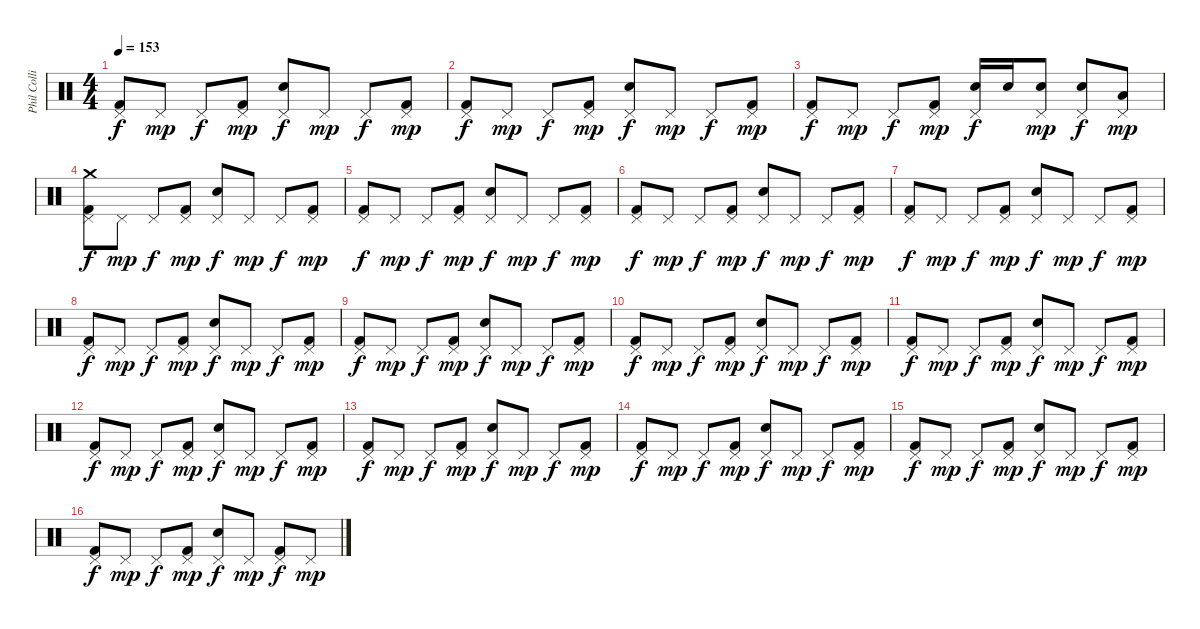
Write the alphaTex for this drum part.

\track ("Phil Collins (drums)" "Phil Colli") {instrument percussion}
\staff {score}
\articulation defaults
\ts (4 4)
\tempo 153
\clef neutral
\ks c
("Pedal Hi-Hat (hit)" "Kick (hit) 2").8{dy f} "Pedal Hi-Hat (hit)".8{dy mp} "Pedal Hi-Hat (hit)".8{dy f} ("Pedal Hi-Hat (hit)" "Kick (hit) 2").8{dy mp} ("Pedal Hi-Hat (hit)" "Electric Snare (hit)").8{dy f} "Pedal Hi-Hat (hit)".8{dy mp} "Pedal Hi-Hat (hit)".8{dy f} ("Pedal Hi-Hat (hit)" "Kick (hit) 2").8{dy mp} |
("Pedal Hi-Hat (hit)" "Kick (hit) 2").8{dy f} "Pedal Hi-Hat (hit)".8{dy mp} "Pedal Hi-Hat (hit)".8{dy f} ("Pedal Hi-Hat (hit)" "Kick (hit) 2").8{dy mp} ("Pedal Hi-Hat (hit)" "Electric Snare (hit)").8{dy f} "Pedal Hi-Hat (hit)".8{dy mp} "Pedal Hi-Hat (hit)".8{dy f} ("Pedal Hi-Hat (hit)" "Kick (hit) 2").8{dy mp} |
("Pedal Hi-Hat (hit)" "Kick (hit) 2").8{dy f} "Pedal Hi-Hat (hit)".8{dy mp} "Pedal Hi-Hat (hit)".8{dy f} ("Pedal Hi-Hat (hit)" "Kick (hit) 2").8{dy mp} ("Pedal Hi-Hat (hit)" "Electric Snare (hit)").16{dy f} "Electric Snare (hit)".16 ("Pedal Hi-Hat (hit)" "Electric Snare (hit)").8{dy mp} ("Pedal Hi-Hat (hit)" "Electric Snare (hit)").8{dy f} ("Pedal Hi-Hat (hit)" "Low Tom (hit)").8{dy mp} |
("Crash medium (hit)" "Pedal Hi-Hat (hit)" "Kick (hit) 2").8{dy f} "Pedal Hi-Hat (hit)".8{dy mp} "Pedal Hi-Hat (hit)".8{dy f} ("Pedal Hi-Hat (hit)" "Kick (hit) 2").8{dy mp} ("Pedal Hi-Hat (hit)" "Electric Snare (hit)").8{dy f} "Pedal Hi-Hat (hit)".8{dy mp} "Pedal Hi-Hat (hit)".8{dy f} ("Pedal Hi-Hat (hit)" "Kick (hit) 2").8{dy mp} |
("Pedal Hi-Hat (hit)" "Kick (hit) 2").8{dy f} "Pedal Hi-Hat (hit)".8{dy mp} "Pedal Hi-Hat (hit)".8{dy f} ("Pedal Hi-Hat (hit)" "Kick (hit) 2").8{dy mp} ("Pedal Hi-Hat (hit)" "Electric Snare (hit)").8{dy f} "Pedal Hi-Hat (hit)".8{dy mp} "Pedal Hi-Hat (hit)".8{dy f} ("Pedal Hi-Hat (hit)" "Kick (hit) 2").8{dy mp} |
("Pedal Hi-Hat (hit)" "Kick (hit) 2").8{dy f} "Pedal Hi-Hat (hit)".8{dy mp} "Pedal Hi-Hat (hit)".8{dy f} ("Pedal Hi-Hat (hit)" "Kick (hit) 2").8{dy mp} ("Pedal Hi-Hat (hit)" "Electric Snare (hit)").8{dy f} "Pedal Hi-Hat (hit)".8{dy mp} "Pedal Hi-Hat (hit)".8{dy f} ("Pedal Hi-Hat (hit)" "Kick (hit) 2").8{dy mp} |
("Pedal Hi-Hat (hit)" "Kick (hit) 2").8{dy f} "Pedal Hi-Hat (hit)".8{dy mp} "Pedal Hi-Hat (hit)".8{dy f} ("Pedal Hi-Hat (hit)" "Kick (hit) 2").8{dy mp} ("Pedal Hi-Hat (hit)" "Electric Snare (hit)").8{dy f} "Pedal Hi-Hat (hit)".8{dy mp} "Pedal Hi-Hat (hit)".8{dy f} ("Pedal Hi-Hat (hit)" "Kick (hit) 2").8{dy mp} |
("Pedal Hi-Hat (hit)" "Kick (hit) 2").8{dy f} "Pedal Hi-Hat (hit)".8{dy mp} "Pedal Hi-Hat (hit)".8{dy f} ("Pedal Hi-Hat (hit)" "Kick (hit) 2").8{dy mp} ("Pedal Hi-Hat (hit)" "Electric Snare (hit)").8{dy f} "Pedal Hi-Hat (hit)".8{dy mp} "Pedal Hi-Hat (hit)".8{dy f} ("Pedal Hi-Hat (hit)" "Kick (hit) 2").8{dy mp} |
("Pedal Hi-Hat (hit)" "Kick (hit) 2").8{dy f} "Pedal Hi-Hat (hit)".8{dy mp} "Pedal Hi-Hat (hit)".8{dy f} ("Pedal Hi-Hat (hit)" "Kick (hit) 2").8{dy mp} ("Pedal Hi-Hat (hit)" "Electric Snare (hit)").8{dy f} "Pedal Hi-Hat (hit)".8{dy mp} "Pedal Hi-Hat (hit)".8{dy f} ("Pedal Hi-Hat (hit)" "Kick (hit) 2").8{dy mp} |
("Pedal Hi-Hat (hit)" "Kick (hit) 2").8{dy f} "Pedal Hi-Hat (hit)".8{dy mp} "Pedal Hi-Hat (hit)".8{dy f} ("Pedal Hi-Hat (hit)" "Kick (hit) 2").8{dy mp} ("Pedal Hi-Hat (hit)" "Electric Snare (hit)").8{dy f} "Pedal Hi-Hat (hit)".8{dy mp} "Pedal Hi-Hat (hit)".8{dy f} ("Pedal Hi-Hat (hit)" "Kick (hit) 2").8{dy mp} |
("Pedal Hi-Hat (hit)" "Kick (hit) 2").8{dy f} "Pedal Hi-Hat (hit)".8{dy mp} "Pedal Hi-Hat (hit)".8{dy f} ("Pedal Hi-Hat (hit)" "Kick (hit) 2").8{dy mp} ("Pedal Hi-Hat (hit)" "Electric Snare (hit)").8{dy f} "Pedal Hi-Hat (hit)".8{dy mp} "Pedal Hi-Hat (hit)".8{dy f} ("Pedal Hi-Hat (hit)" "Kick (hit) 2").8{dy mp} |
("Pedal Hi-Hat (hit)" "Kick (hit) 2").8{dy f} "Pedal Hi-Hat (hit)".8{dy mp} "Pedal Hi-Hat (hit)".8{dy f} ("Pedal Hi-Hat (hit)" "Kick (hit) 2").8{dy mp} ("Pedal Hi-Hat (hit)" "Electric Snare (hit)").8{dy f} "Pedal Hi-Hat (hit)".8{dy mp} "Pedal Hi-Hat (hit)".8{dy f} ("Pedal Hi-Hat (hit)" "Kick (hit) 2").8{dy mp} |
("Pedal Hi-Hat (hit)" "Kick (hit) 2").8{dy f} "Pedal Hi-Hat (hit)".8{dy mp} "Pedal Hi-Hat (hit)".8{dy f} ("Pedal Hi-Hat (hit)" "Kick (hit) 2").8{dy mp} ("Pedal Hi-Hat (hit)" "Electric Snare (hit)").8{dy f} "Pedal Hi-Hat (hit)".8{dy mp} "Pedal Hi-Hat (hit)".8{dy f} ("Pedal Hi-Hat (hit)" "Kick (hit) 2").8{dy mp} |
("Pedal Hi-Hat (hit)" "Kick (hit) 2").8{dy f} "Pedal Hi-Hat (hit)".8{dy mp} "Pedal Hi-Hat (hit)".8{dy f} ("Pedal Hi-Hat (hit)" "Kick (hit) 2").8{dy mp} ("Pedal Hi-Hat (hit)" "Electric Snare (hit)").8{dy f} "Pedal Hi-Hat (hit)".8{dy mp} "Pedal Hi-Hat (hit)".8{dy f} ("Pedal Hi-Hat (hit)" "Kick (hit) 2").8{dy mp} |
("Pedal Hi-Hat (hit)" "Kick (hit) 2").8{dy f} "Pedal Hi-Hat (hit)".8{dy mp} "Pedal Hi-Hat (hit)".8{dy f} ("Pedal Hi-Hat (hit)" "Kick (hit) 2").8{dy mp} ("Pedal Hi-Hat (hit)" "Electric Snare (hit)").8{dy f} "Pedal Hi-Hat (hit)".8{dy mp} "Pedal Hi-Hat (hit)".8{dy f} ("Pedal Hi-Hat (hit)" "Kick (hit) 2").8{dy mp} |
("Pedal Hi-Hat (hit)" "Kick (hit) 2").8{dy f} "Pedal Hi-Hat (hit)".8{dy mp} "Pedal Hi-Hat (hit)".8{dy f} ("Pedal Hi-Hat (hit)" "Kick (hit) 2").8{dy mp} ("Pedal Hi-Hat (hit)" "Electric Snare (hit)").8{dy f} "Pedal Hi-Hat (hit)".8{dy mp} ("Pedal Hi-Hat (hit)" "Kick (hit) 2").8{dy f} "Pedal Hi-Hat (hit)".8{dy mp}
